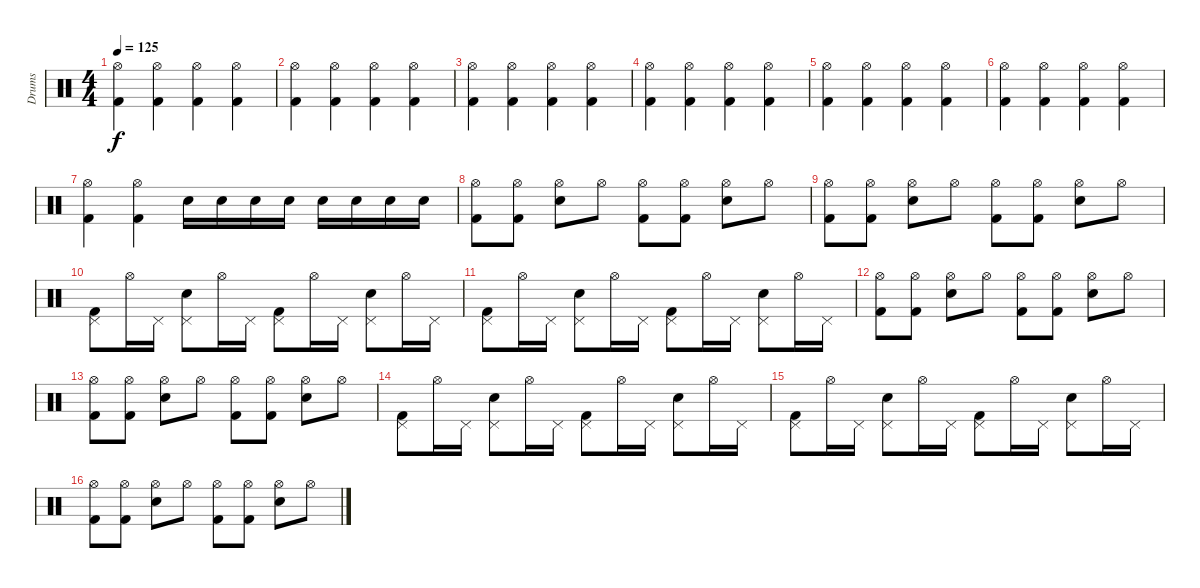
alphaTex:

\track ("Drums" "Drums") {instrument percussion}
\staff {score}
\articulation defaults
\ts (4 4)
\tempo 125
\clef neutral
\ks c
("Hi-Hat (open)" "Kick (hit) 2").4{dy f} ("Hi-Hat (open)" "Kick (hit) 2").4 ("Hi-Hat (open)" "Kick (hit) 2").4 ("Hi-Hat (open)" "Kick (hit) 2").4 |
("Hi-Hat (open)" "Kick (hit) 2").4 ("Hi-Hat (open)" "Kick (hit) 2").4 ("Hi-Hat (open)" "Kick (hit) 2").4 ("Hi-Hat (open)" "Kick (hit) 2").4 |
("Hi-Hat (open)" "Kick (hit) 2").4 ("Hi-Hat (open)" "Kick (hit) 2").4 ("Hi-Hat (open)" "Kick (hit) 2").4 ("Hi-Hat (open)" "Kick (hit) 2").4 |
("Hi-Hat (open)" "Kick (hit) 2").4 ("Hi-Hat (open)" "Kick (hit) 2").4 ("Hi-Hat (open)" "Kick (hit) 2").4 ("Hi-Hat (open)" "Kick (hit) 2").4 |
("Hi-Hat (open)" "Kick (hit) 2").4 ("Hi-Hat (open)" "Kick (hit) 2").4 ("Hi-Hat (open)" "Kick (hit) 2").4 ("Hi-Hat (open)" "Kick (hit) 2").4 |
("Hi-Hat (open)" "Kick (hit) 2").4 ("Hi-Hat (open)" "Kick (hit) 2").4 ("Hi-Hat (open)" "Kick (hit) 2").4 ("Hi-Hat (open)" "Kick (hit) 2").4 |
("Hi-Hat (open)" "Kick (hit) 2").4 ("Hi-Hat (open)" "Kick (hit) 2").4 "Snare (hit) 2".16 "Snare (hit) 2".16 "Snare (hit) 2".16 "Snare (hit) 2".16 "Snare (hit) 2".16 "Snare (hit) 2".16 "Snare (hit) 2".16 "Snare (hit) 2".16 |
("Hi-Hat (open)" "Kick (hit) 2").8 ("Hi-Hat (open)" "Kick (hit) 2").8 ("Hi-Hat (open)" "Snare (hit) 2").8 "Hi-Hat (open)".8 ("Hi-Hat (open)" "Kick (hit) 2").8 ("Hi-Hat (open)" "Kick (hit) 2").8 ("Hi-Hat (open)" "Snare (hit) 2").8 "Hi-Hat (open)".8 |
("Hi-Hat (open)" "Kick (hit) 2").8 ("Hi-Hat (open)" "Kick (hit) 2").8 ("Hi-Hat (open)" "Snare (hit) 2").8 "Hi-Hat (open)".8 ("Hi-Hat (open)" "Kick (hit) 2").8 ("Hi-Hat (open)" "Kick (hit) 2").8 ("Hi-Hat (open)" "Snare (hit) 2").8 "Hi-Hat (open)".8 |
("Pedal Hi-Hat (hit)" "Kick (hit) 2").8 "Hi-Hat (open)".16 "Pedal Hi-Hat (hit)".16 ("Pedal Hi-Hat (hit)" "Snare (hit) 2").8 "Hi-Hat (open)".16 "Pedal Hi-Hat (hit)".16 ("Pedal Hi-Hat (hit)" "Kick (hit) 2").8 "Hi-Hat (open)".16 "Pedal Hi-Hat (hit)".16 ("Pedal Hi-Hat (hit)" "Snare (hit) 2").8 "Hi-Hat (open)".16 "Pedal Hi-Hat (hit)".16 |
("Pedal Hi-Hat (hit)" "Kick (hit) 2").8 "Hi-Hat (open)".16 "Pedal Hi-Hat (hit)".16 ("Pedal Hi-Hat (hit)" "Snare (hit) 2").8 "Hi-Hat (open)".16 "Pedal Hi-Hat (hit)".16 ("Pedal Hi-Hat (hit)" "Kick (hit) 2").8 "Hi-Hat (open)".16 "Pedal Hi-Hat (hit)".16 ("Pedal Hi-Hat (hit)" "Snare (hit) 2").8 "Hi-Hat (open)".16 "Pedal Hi-Hat (hit)".16 |
("Hi-Hat (open)" "Kick (hit) 2").8 ("Hi-Hat (open)" "Kick (hit) 2").8 ("Hi-Hat (open)" "Snare (hit) 2").8 "Hi-Hat (open)".8 ("Hi-Hat (open)" "Kick (hit) 2").8 ("Hi-Hat (open)" "Kick (hit) 2").8 ("Hi-Hat (open)" "Snare (hit) 2").8 "Hi-Hat (open)".8 |
("Hi-Hat (open)" "Kick (hit) 2").8 ("Hi-Hat (open)" "Kick (hit) 2").8 ("Hi-Hat (open)" "Snare (hit) 2").8 "Hi-Hat (open)".8 ("Hi-Hat (open)" "Kick (hit) 2").8 ("Hi-Hat (open)" "Kick (hit) 2").8 ("Hi-Hat (open)" "Snare (hit) 2").8 "Hi-Hat (open)".8 |
("Pedal Hi-Hat (hit)" "Kick (hit) 2").8 "Hi-Hat (open)".16 "Pedal Hi-Hat (hit)".16 ("Pedal Hi-Hat (hit)" "Snare (hit) 2").8 "Hi-Hat (open)".16 "Pedal Hi-Hat (hit)".16 ("Pedal Hi-Hat (hit)" "Kick (hit) 2").8 "Hi-Hat (open)".16 "Pedal Hi-Hat (hit)".16 ("Pedal Hi-Hat (hit)" "Snare (hit) 2").8 "Hi-Hat (open)".16 "Pedal Hi-Hat (hit)".16 |
("Pedal Hi-Hat (hit)" "Kick (hit) 2").8 "Hi-Hat (open)".16 "Pedal Hi-Hat (hit)".16 ("Pedal Hi-Hat (hit)" "Snare (hit) 2").8 "Hi-Hat (open)".16 "Pedal Hi-Hat (hit)".16 ("Pedal Hi-Hat (hit)" "Kick (hit) 2").8 "Hi-Hat (open)".16 "Pedal Hi-Hat (hit)".16 ("Pedal Hi-Hat (hit)" "Snare (hit) 2").8 "Hi-Hat (open)".16 "Pedal Hi-Hat (hit)".16 |
("Hi-Hat (open)" "Kick (hit) 2").8 ("Hi-Hat (open)" "Kick (hit) 2").8 ("Hi-Hat (open)" "Snare (hit) 2").8 "Hi-Hat (open)".8 ("Hi-Hat (open)" "Kick (hit) 2").8 ("Hi-Hat (open)" "Kick (hit) 2").8 ("Hi-Hat (open)" "Snare (hit) 2").8 "Hi-Hat (open)".8
